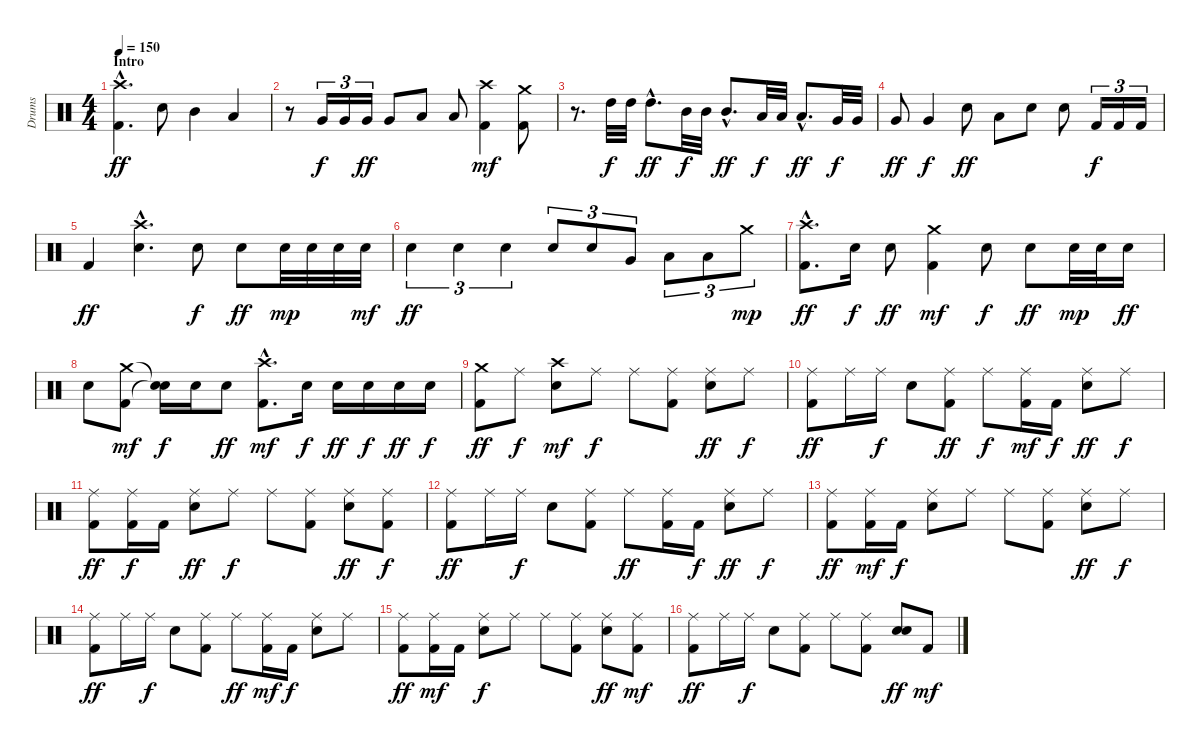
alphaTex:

\track ("Drums" "Drums") {instrument percussion}
\staff {score}
\articulation defaults
\ts (4 4)
\section ("" "Intro")
\tempo 150
\clef neutral
\ks c
("Crash high (hit)"{hac} "Kick (hit) 2"{hac}).4{d dy ff} "Snare (hit) 2".8 "Mid Tom (hit)".4 "Low Tom (hit)".4 |
r.8 "Very Low Tom (hit)".16{tu (3 2) dy f} "Very Low Tom (hit)".16{tu (3 2)} "Very Low Tom (hit)".16{tu (3 2) dy ff} "Very Low Tom (hit)".8 "Low Floor Tom (hit)".8 "Low Floor Tom (hit)".8 ("Crash high (hit)" "Kick (hit) 2").4{dy mf} ("Crash medium (hit)" "Kick (hit) 2").8 |
r.8{d} "High Tom (hit)".32{dy f} "High Tom (hit)".32 "High Tom (hit)"{hac}.8{d dy ff} "Mid Tom (hit)".32{dy f} "Mid Tom (hit)".32 "Mid Tom (hit)"{hac}.8{d dy ff} "Low Tom (hit)".32{dy f} "Low Tom (hit)".32 "Low Tom (hit)"{hac}.8{d dy ff} "Very Low Tom (hit)".32{dy f} "Very Low Tom (hit)".32 |
"Very Low Tom (hit)".8{dy ff} "Very Low Tom (hit)".4{dy f} "Snare (hit) 2".8{dy ff} "Low Tom (hit)".8 "Snare (hit) 2".8 "Snare (hit) 2".8 "Kick (hit) 2".16{tu (3 2) dy f} "Kick (hit) 2".16{tu (3 2)} "Kick (hit) 2".16{tu (3 2)} |
"Kick (hit) 2".4{dy ff} ("Crash high (hit)"{hac} "Snare (hit) 2"{hac}).4{d} "Snare (hit) 2".8{dy f} "Snare (hit) 2".8{dy ff} "Snare (hit) 2".32{dy mp} "Snare (hit) 2".32 "Snare (hit) 2".32 "Snare (hit) 2".32{dy mf} |
"Snare (hit) 2".4{tu (3 2) dy ff} "Snare (hit) 2".4{tu (3 2)} "Snare (hit) 2".4{tu (3 2)} "Snare (hit) 2".8{tu (3 2)} "Snare (hit) 2".8{tu (3 2)} "Very Low Tom (hit)".8{tu (3 2)} "Low Floor Tom (hit)".8{tu (3 2)} "Low Floor Tom (hit)".8{tu (3 2)} "Crash medium (hit)".8{tu (3 2) dy mp} |
("Crash high (hit)"{hac} "Kick (hit) 2"{hac}).8{d dy ff} "Snare (hit) 2".16{dy f} "Snare (hit) 2".8{dy ff} ("Crash medium (hit)" "Kick (hit) 2").4{dy mf} "Snare (hit) 2".8{dy f} "Snare (hit) 2".8{dy ff} "Snare (hit) 2".32{dy mp} "Snare (hit) 2".32 "Snare (hit) 2".16{dy ff} |
"Snare (hit) 2".8 ("Crash medium (hit)" "Kick (hit) 2").8{dy mf} ("Snare (hit)"{t} "Snare (hit)"{t}).16{dy f} "Snare (hit) 2".16 "Snare (hit) 2".8{dy ff} ("Crash high (hit)"{hac} "Kick (hit) 2"{hac}).8{d dy mf} "Snare (hit) 2".16{dy f} "Snare (hit) 2".16{dy ff} "Snare (hit) 2".16{dy f} "Snare (hit) 2".16{dy ff} "Snare (hit) 2".16{dy f} |
("Crash medium (hit)" "Kick (hit) 2").8{dy ff} "Ride (middle)".8{dy f} ("Crash high (hit)" "Snare (hit) 2").8{dy mf} "Ride (middle)".8{dy f} "Ride (middle)".8 ("Ride (middle)" "Kick (hit) 2").8 ("Ride (middle)" "Snare (hit) 2").8{dy ff} "Ride (middle)".8{dy f} |
("Ride (middle)" "Kick (hit) 2").8{dy ff} "Ride (middle)".16 "Ride (middle)".16{dy f} "Snare (hit) 2".8 ("Ride (middle)" "Kick (hit) 2").8{dy ff} "Ride (middle)".8{dy f} ("Ride (middle)" "Kick (hit) 2").16{dy mf} "Kick (hit) 2".16{dy f} ("Ride (middle)" "Snare (hit) 2").8{dy ff} "Ride (middle)".8{dy f} |
("Ride (middle)" "Kick (hit) 2").8{dy ff} ("Ride (middle)" "Kick (hit) 2").16{dy f} "Kick (hit) 2".16 ("Ride (middle)" "Snare (hit) 2").8{dy ff} "Ride (middle)".8{dy f} "Ride (middle)".8 ("Ride (middle)" "Kick (hit) 2").8 ("Ride (middle)" "Snare (hit) 2").8{dy ff} ("Ride (middle)" "Kick (hit) 2").8{dy f} |
("Ride (middle)" "Kick (hit) 2").8{dy ff} "Ride (middle)".16 "Ride (middle)".16{dy f} "Snare (hit) 2".8 ("Ride (middle)" "Kick (hit) 2").8 "Ride (middle)".8{dy ff} ("Ride (middle)" "Kick (hit) 2").16 "Kick (hit) 2".16{dy f} ("Ride (middle)" "Snare (hit) 2").8{dy ff} "Ride (middle)".8{dy f} |
("Ride (middle)" "Kick (hit) 2").8{dy ff} ("Ride (middle)" "Kick (hit) 2").16{dy mf} "Kick (hit) 2".16{dy f} ("Ride (middle)" "Snare (hit) 2").8 "Ride (middle)".8 "Ride (middle)".8 ("Ride (middle)" "Kick (hit) 2").8 ("Ride (middle)" "Snare (hit) 2").8{dy ff} "Ride (middle)".8{dy f} |
("Ride (middle)" "Kick (hit) 2").8{dy ff} "Ride (middle)".16 "Ride (middle)".16{dy f} "Snare (hit) 2".8 ("Ride (middle)" "Kick (hit) 2").8 "Ride (middle)".8{dy ff} ("Ride (middle)" "Kick (hit) 2").16{dy mf} "Kick (hit) 2".16{dy f} ("Ride (middle)" "Snare (hit) 2").8 "Ride (middle)".8 |
("Ride (middle)" "Kick (hit) 2").8{dy ff} ("Ride (middle)" "Kick (hit) 2").16{dy mf} "Kick (hit) 2".16 ("Ride (middle)" "Snare (hit) 2").8{dy f} "Ride (middle)".8 "Ride (middle)".8 ("Ride (middle)" "Kick (hit) 2").8 ("Ride (middle)" "Snare (hit) 2").8{dy ff} ("Ride (middle)" "Kick (hit) 2").8{dy mf} |
("Kick (hit) 2" "Ride (middle)").8{dy ff} "Ride (middle)".16 "Ride (middle)".16{dy f} "Snare (hit) 2".8 ("Kick (hit) 2" "Ride (middle)").8 "Ride (middle)".8 ("Kick (hit) 2" "Ride (middle)").8 ("Snare (hit) 2" "Snare (hit) 2").8{dy ff} "Kick (hit) 2".8{dy mf}
